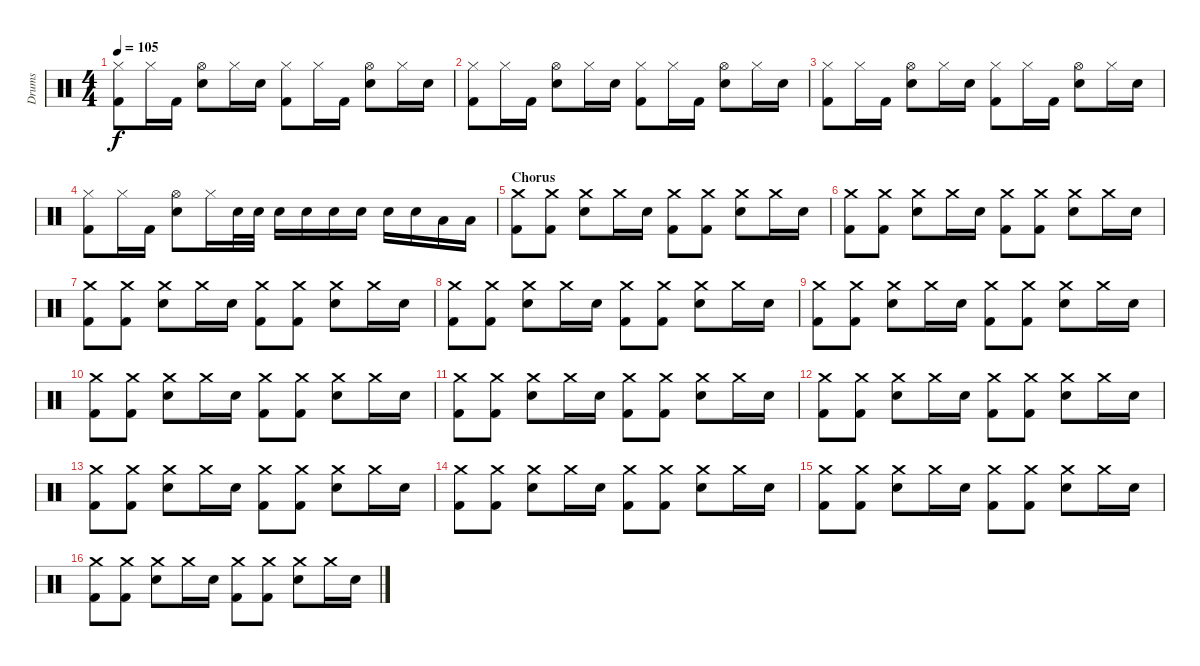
\track ("Drums" "Drums") {instrument percussion}
\staff {score}
\articulation defaults
\ts (4 4)
\tempo 105
\clef neutral
\ks c
("Kick (hit) 2" "Hi-Hat (closed)").8{dy f} "Hi-Hat (closed)".16 "Kick (hit) 2".16 ("Hi-Hat (open)" "Snare (hit) 2").8 "Hi-Hat (closed)".16 "Snare (hit) 2".16 ("Hi-Hat (closed)" "Kick (hit) 2").8 "Hi-Hat (closed)".16 "Kick (hit) 2".16 ("Hi-Hat (open)" "Snare (hit) 2").8 "Hi-Hat (closed)".16 "Snare (hit) 2".16 |
("Kick (hit) 2" "Hi-Hat (closed)").8 "Hi-Hat (closed)".16 "Kick (hit) 2".16 ("Hi-Hat (open)" "Snare (hit) 2").8 "Hi-Hat (closed)".16 "Snare (hit) 2".16 ("Hi-Hat (closed)" "Kick (hit) 2").8 "Hi-Hat (closed)".16 "Kick (hit) 2".16 ("Hi-Hat (open)" "Snare (hit) 2").8 "Hi-Hat (closed)".16 "Snare (hit) 2".16 |
("Kick (hit) 2" "Hi-Hat (closed)").8 "Hi-Hat (closed)".16 "Kick (hit) 2".16 ("Hi-Hat (open)" "Snare (hit) 2").8 "Hi-Hat (closed)".16 "Snare (hit) 2".16 ("Hi-Hat (closed)" "Kick (hit) 2").8 "Hi-Hat (closed)".16 "Kick (hit) 2".16 ("Hi-Hat (open)" "Snare (hit) 2").8 "Hi-Hat (closed)".16 "Snare (hit) 2".16 |
("Kick (hit) 2" "Hi-Hat (closed)").8 "Hi-Hat (closed)".16 "Kick (hit) 2".16 ("Hi-Hat (open)" "Snare (hit) 2").8 "Hi-Hat (closed)".16 "Snare (hit) 2".32 "Snare (hit) 2".32 "Snare (hit) 2".16 "Snare (hit) 2".16 "Snare (hit) 2".16 "Snare (hit) 2".16 "Snare (hit) 2".16 "Snare (hit) 2".16 "Low Tom (hit)".16 "Low Tom (hit)".16 |
\section ("" "Chorus")
("Kick (hit) 2" "Crash medium (hit)").8 ("Crash medium (hit)" "Kick (hit) 2").8 ("Crash medium (hit)" "Snare (hit) 2").8 "Crash medium (hit)".16 "Snare (hit) 2".16 ("Crash medium (hit)" "Kick (hit) 2").8 ("Crash medium (hit)" "Kick (hit) 2").8 ("Crash medium (hit)" "Snare (hit) 2").8 "Crash medium (hit)".16 "Snare (hit) 2".16 |
("Kick (hit) 2" "Crash medium (hit)").8 ("Crash medium (hit)" "Kick (hit) 2").8 ("Crash medium (hit)" "Snare (hit) 2").8 "Crash medium (hit)".16 "Snare (hit) 2".16 ("Crash medium (hit)" "Kick (hit) 2").8 ("Crash medium (hit)" "Kick (hit) 2").8 ("Crash medium (hit)" "Snare (hit) 2").8 "Crash medium (hit)".16 "Snare (hit) 2".16 |
("Kick (hit) 2" "Crash medium (hit)").8 ("Crash medium (hit)" "Kick (hit) 2").8 ("Crash medium (hit)" "Snare (hit) 2").8 "Crash medium (hit)".16 "Snare (hit) 2".16 ("Crash medium (hit)" "Kick (hit) 2").8 ("Crash medium (hit)" "Kick (hit) 2").8 ("Crash medium (hit)" "Snare (hit) 2").8 "Crash medium (hit)".16 "Snare (hit) 2".16 |
("Kick (hit) 2" "Crash medium (hit)").8 ("Crash medium (hit)" "Kick (hit) 2").8 ("Crash medium (hit)" "Snare (hit) 2").8 "Crash medium (hit)".16 "Snare (hit) 2".16 ("Crash medium (hit)" "Kick (hit) 2").8 ("Crash medium (hit)" "Kick (hit) 2").8 ("Crash medium (hit)" "Snare (hit) 2").8 "Crash medium (hit)".16 "Snare (hit) 2".16 |
("Kick (hit) 2" "Crash medium (hit)").8 ("Crash medium (hit)" "Kick (hit) 2").8 ("Crash medium (hit)" "Snare (hit) 2").8 "Crash medium (hit)".16 "Snare (hit) 2".16 ("Crash medium (hit)" "Kick (hit) 2").8 ("Crash medium (hit)" "Kick (hit) 2").8 ("Crash medium (hit)" "Snare (hit) 2").8 "Crash medium (hit)".16 "Snare (hit) 2".16 |
("Kick (hit) 2" "Crash medium (hit)").8 ("Crash medium (hit)" "Kick (hit) 2").8 ("Crash medium (hit)" "Snare (hit) 2").8 "Crash medium (hit)".16 "Snare (hit) 2".16 ("Crash medium (hit)" "Kick (hit) 2").8 ("Crash medium (hit)" "Kick (hit) 2").8 ("Crash medium (hit)" "Snare (hit) 2").8 "Crash medium (hit)".16 "Snare (hit) 2".16 |
("Kick (hit) 2" "Crash medium (hit)").8 ("Crash medium (hit)" "Kick (hit) 2").8 ("Crash medium (hit)" "Snare (hit) 2").8 "Crash medium (hit)".16 "Snare (hit) 2".16 ("Crash medium (hit)" "Kick (hit) 2").8 ("Crash medium (hit)" "Kick (hit) 2").8 ("Crash medium (hit)" "Snare (hit) 2").8 "Crash medium (hit)".16 "Snare (hit) 2".16 |
("Kick (hit) 2" "Crash medium (hit)").8 ("Crash medium (hit)" "Kick (hit) 2").8 ("Crash medium (hit)" "Snare (hit) 2").8 "Crash medium (hit)".16 "Snare (hit) 2".16 ("Crash medium (hit)" "Kick (hit) 2").8 ("Crash medium (hit)" "Kick (hit) 2").8 ("Crash medium (hit)" "Snare (hit) 2").8 "Crash medium (hit)".16 "Snare (hit) 2".16 |
("Kick (hit) 2" "Crash medium (hit)").8 ("Crash medium (hit)" "Kick (hit) 2").8 ("Crash medium (hit)" "Snare (hit) 2").8 "Crash medium (hit)".16 "Snare (hit) 2".16 ("Crash medium (hit)" "Kick (hit) 2").8 ("Crash medium (hit)" "Kick (hit) 2").8 ("Crash medium (hit)" "Snare (hit) 2").8 "Crash medium (hit)".16 "Snare (hit) 2".16 |
("Kick (hit) 2" "Crash medium (hit)").8 ("Crash medium (hit)" "Kick (hit) 2").8 ("Crash medium (hit)" "Snare (hit) 2").8 "Crash medium (hit)".16 "Snare (hit) 2".16 ("Crash medium (hit)" "Kick (hit) 2").8 ("Crash medium (hit)" "Kick (hit) 2").8 ("Crash medium (hit)" "Snare (hit) 2").8 "Crash medium (hit)".16 "Snare (hit) 2".16 |
("Kick (hit) 2" "Crash medium (hit)").8 ("Crash medium (hit)" "Kick (hit) 2").8 ("Crash medium (hit)" "Snare (hit) 2").8 "Crash medium (hit)".16 "Snare (hit) 2".16 ("Crash medium (hit)" "Kick (hit) 2").8 ("Crash medium (hit)" "Kick (hit) 2").8 ("Crash medium (hit)" "Snare (hit) 2").8 "Crash medium (hit)".16 "Snare (hit) 2".16 |
("Kick (hit) 2" "Crash medium (hit)").8 ("Crash medium (hit)" "Kick (hit) 2").8 ("Crash medium (hit)" "Snare (hit) 2").8 "Crash medium (hit)".16 "Snare (hit) 2".16 ("Crash medium (hit)" "Kick (hit) 2").8 ("Crash medium (hit)" "Kick (hit) 2").8 ("Crash medium (hit)" "Snare (hit) 2").8 "Crash medium (hit)".16 "Snare (hit) 2".16
